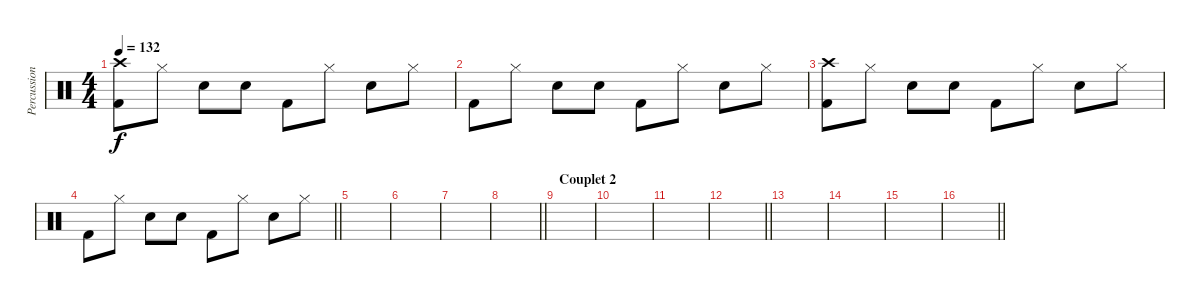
\track ("Percussions" "Percussion") {instrument percussion}
\staff {score}
\articulation defaults
\ts (4 4)
\tempo 132
\clef neutral
\ks c
("Kick (hit) 2" "Crash high (hit)").8{dy f} "Hi-Hat (closed)".8 "Snare (hit) 2".8 "Snare (hit) 2".8 "Kick (hit) 2".8 "Hi-Hat (closed)".8 "Snare (hit) 2".8 "Hi-Hat (closed)".8 |
"Kick (hit) 2".8 "Hi-Hat (closed)".8 "Snare (hit) 2".8 "Snare (hit) 2".8 "Kick (hit) 2".8 "Hi-Hat (closed)".8 "Snare (hit) 2".8 "Hi-Hat (closed)".8 |
("Kick (hit) 2" "Crash high (hit)").8 "Hi-Hat (closed)".8 "Snare (hit) 2".8 "Snare (hit) 2".8 "Kick (hit) 2".8 "Hi-Hat (closed)".8 "Snare (hit) 2".8 "Hi-Hat (closed)".8 |
\barLineRight lightlight "Kick (hit) 2".8 "Hi-Hat (closed)".8 "Snare (hit) 2".8 "Snare (hit) 2".8 "Kick (hit) 2".8 "Hi-Hat (closed)".8 "Snare (hit) 2".8 "Hi-Hat (closed)".8
|
|
|
|
\barLineRight lightlight
|
\section ("" "Couplet 2")
|
|
|
\barLineRight lightlight
|
|
|
|
\barLineRight lightlight
